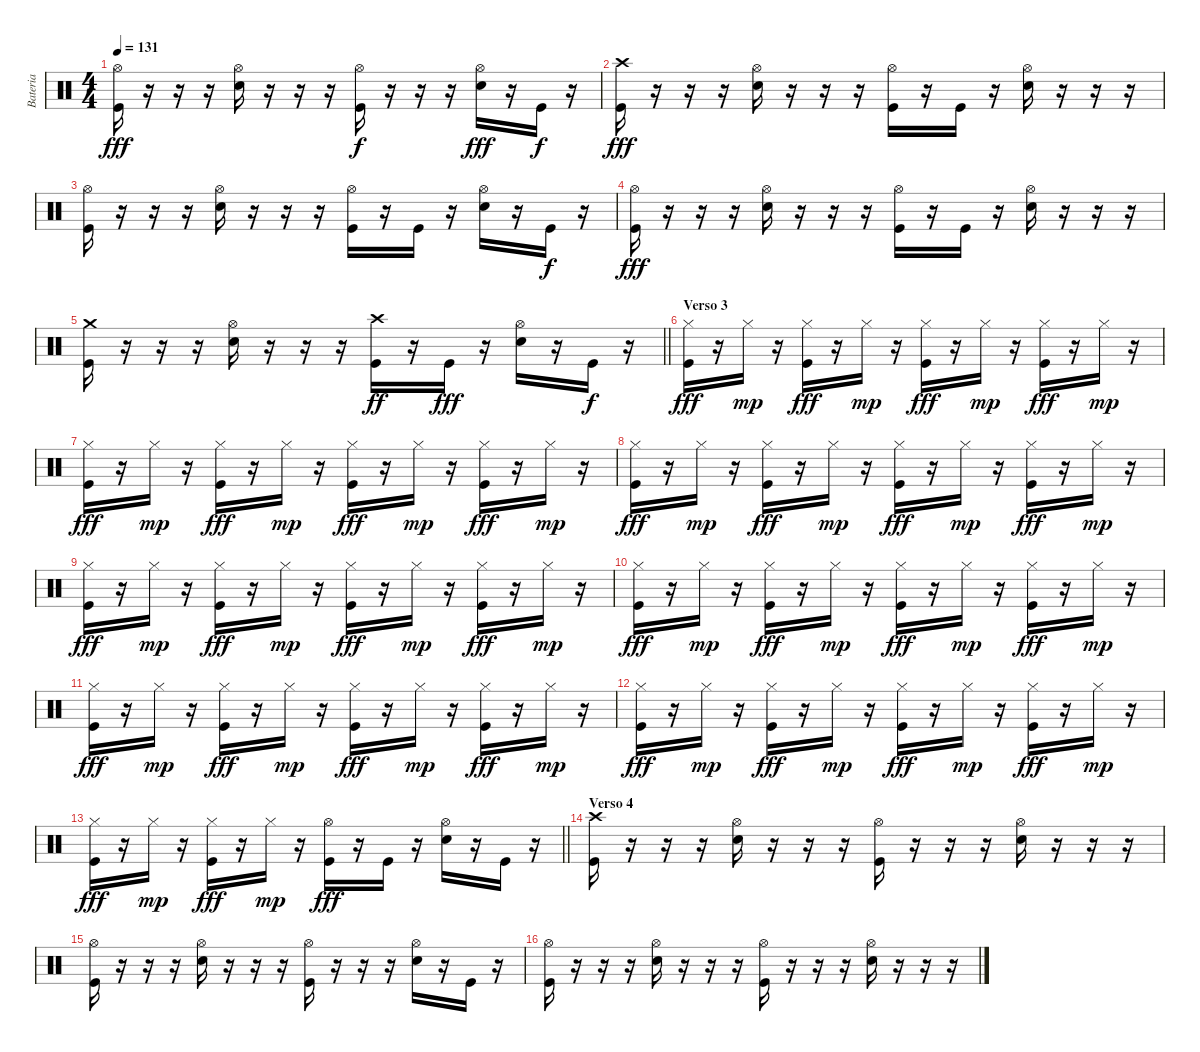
\track ("Bateria" "Bateria") {instrument percussion}
\staff {score}
\articulation defaults
\ts (4 4)
\tempo 131
\clef neutral
\ks c
("Hi-Hat (open)" "Kick (hit)").16{dy fff} r.16 r.16 r.16 ("Hi-Hat (open)" "Electric Snare (hit)").16 r.16 r.16 r.16 ("Hi-Hat (open)" "Kick (hit)").16{dy f} r.16 r.16 r.16 ("Hi-Hat (open)" "Electric Snare (hit)").16{dy fff} r.16 "Kick (hit)".16{dy f} r.16 |
("Crash high (hit)" "Kick (hit)").16{dy fff} r.16 r.16 r.16 ("Hi-Hat (open)" "Electric Snare (hit)").16 r.16 r.16 r.16 ("Hi-Hat (open)" "Kick (hit)").16 r.16 "Kick (hit)".16 r.16 ("Hi-Hat (open)" "Electric Snare (hit)").16 r.16 r.16 r.16 |
("Hi-Hat (open)" "Kick (hit)").16 r.16 r.16 r.16 ("Hi-Hat (open)" "Electric Snare (hit)").16 r.16 r.16 r.16 ("Hi-Hat (open)" "Kick (hit)").16 r.16 "Kick (hit)".16 r.16 ("Hi-Hat (open)" "Electric Snare (hit)").16 r.16 "Kick (hit)".16{dy f} r.16 |
("Hi-Hat (open)" "Kick (hit)").16{dy fff} r.16 r.16 r.16 ("Hi-Hat (open)" "Electric Snare (hit)").16 r.16 r.16 r.16 ("Hi-Hat (open)" "Kick (hit)").16 r.16 "Kick (hit)".16 r.16 ("Hi-Hat (open)" "Electric Snare (hit)").16 r.16 r.16 r.16 |
\barLineRight lightlight
("Crash medium (hit)" "Kick (hit)").16 r.16 r.16 r.16 ("Hi-Hat (open)" "Electric Snare (hit)").16 r.16 r.16 r.16 ("Crash high (hit)" "Kick (hit)").16{dy ff} r.16 "Kick (hit)".16{dy fff} r.16 ("Hi-Hat (open)" "Electric Snare (hit)").16 r.16 "Kick (hit)".16{dy f} r.16 |
\section ("" "Verso 3")
("Hi-Hat (closed)" "Kick (hit)").16{dy fff} r.16 "Hi-Hat (closed)".16{dy mp} r.16 ("Hi-Hat (closed)" "Kick (hit)").16{dy fff} r.16 "Hi-Hat (closed)".16{dy mp} r.16 ("Hi-Hat (closed)" "Kick (hit)").16{dy fff} r.16 "Hi-Hat (closed)".16{dy mp} r.16 ("Hi-Hat (closed)" "Kick (hit)").16{dy fff} r.16 "Hi-Hat (closed)".16{dy mp} r.16 |
("Hi-Hat (closed)" "Kick (hit)").16{dy fff} r.16 "Hi-Hat (closed)".16{dy mp} r.16 ("Hi-Hat (closed)" "Kick (hit)").16{dy fff} r.16 "Hi-Hat (closed)".16{dy mp} r.16 ("Hi-Hat (closed)" "Kick (hit)").16{dy fff} r.16 "Hi-Hat (closed)".16{dy mp} r.16 ("Hi-Hat (closed)" "Kick (hit)").16{dy fff} r.16 "Hi-Hat (closed)".16{dy mp} r.16 |
("Hi-Hat (closed)" "Kick (hit)").16{dy fff} r.16 "Hi-Hat (closed)".16{dy mp} r.16 ("Hi-Hat (closed)" "Kick (hit)").16{dy fff} r.16 "Hi-Hat (closed)".16{dy mp} r.16 ("Hi-Hat (closed)" "Kick (hit)").16{dy fff} r.16 "Hi-Hat (closed)".16{dy mp} r.16 ("Hi-Hat (closed)" "Kick (hit)").16{dy fff} r.16 "Hi-Hat (closed)".16{dy mp} r.16 |
("Hi-Hat (closed)" "Kick (hit)").16{dy fff} r.16 "Hi-Hat (closed)".16{dy mp} r.16 ("Hi-Hat (closed)" "Kick (hit)").16{dy fff} r.16 "Hi-Hat (closed)".16{dy mp} r.16 ("Hi-Hat (closed)" "Kick (hit)").16{dy fff} r.16 "Hi-Hat (closed)".16{dy mp} r.16 ("Hi-Hat (closed)" "Kick (hit)").16{dy fff} r.16 "Hi-Hat (closed)".16{dy mp} r.16 |
("Hi-Hat (closed)" "Kick (hit)").16{dy fff} r.16 "Hi-Hat (closed)".16{dy mp} r.16 ("Hi-Hat (closed)" "Kick (hit)").16{dy fff} r.16 "Hi-Hat (closed)".16{dy mp} r.16 ("Hi-Hat (closed)" "Kick (hit)").16{dy fff} r.16 "Hi-Hat (closed)".16{dy mp} r.16 ("Hi-Hat (closed)" "Kick (hit)").16{dy fff} r.16 "Hi-Hat (closed)".16{dy mp} r.16 |
("Hi-Hat (closed)" "Kick (hit)").16{dy fff} r.16 "Hi-Hat (closed)".16{dy mp} r.16 ("Hi-Hat (closed)" "Kick (hit)").16{dy fff} r.16 "Hi-Hat (closed)".16{dy mp} r.16 ("Hi-Hat (closed)" "Kick (hit)").16{dy fff} r.16 "Hi-Hat (closed)".16{dy mp} r.16 ("Hi-Hat (closed)" "Kick (hit)").16{dy fff} r.16 "Hi-Hat (closed)".16{dy mp} r.16 |
("Hi-Hat (closed)" "Kick (hit)").16{dy fff} r.16 "Hi-Hat (closed)".16{dy mp} r.16 ("Hi-Hat (closed)" "Kick (hit)").16{dy fff} r.16 "Hi-Hat (closed)".16{dy mp} r.16 ("Hi-Hat (closed)" "Kick (hit)").16{dy fff} r.16 "Hi-Hat (closed)".16{dy mp} r.16 ("Hi-Hat (closed)" "Kick (hit)").16{dy fff} r.16 "Hi-Hat (closed)".16{dy mp} r.16 |
\barLineRight lightlight
("Hi-Hat (closed)" "Kick (hit)").16{dy fff} r.16 "Hi-Hat (closed)".16{dy mp} r.16 ("Hi-Hat (closed)" "Kick (hit)").16{dy fff} r.16 "Hi-Hat (closed)".16{dy mp} r.16 ("Hi-Hat (open)" "Kick (hit)").16{dy fff} r.16 "Kick (hit)".16 r.16 ("Hi-Hat (open)" "Electric Snare (hit)").16 r.16 "Kick (hit)".16 r.16 |
\section ("" "Verso 4")
("Crash high (hit)" "Kick (hit)").16 r.16 r.16 r.16 ("Hi-Hat (open)" "Electric Snare (hit)").16 r.16 r.16 r.16 ("Hi-Hat (open)" "Kick (hit)").16 r.16 r.16 r.16 ("Hi-Hat (open)" "Electric Snare (hit)").16 r.16 r.16 r.16 |
("Hi-Hat (open)" "Kick (hit)").16 r.16 r.16 r.16 ("Hi-Hat (open)" "Electric Snare (hit)").16 r.16 r.16 r.16 ("Hi-Hat (open)" "Kick (hit)").16 r.16 r.16 r.16 ("Hi-Hat (open)" "Electric Snare (hit)").16 r.16 "Kick (hit)".16 r.16 |
("Hi-Hat (open)" "Kick (hit)").16 r.16 r.16 r.16 ("Hi-Hat (open)" "Electric Snare (hit)").16 r.16 r.16 r.16 ("Hi-Hat (open)" "Kick (hit)").16 r.16 r.16 r.16 ("Hi-Hat (open)" "Electric Snare (hit)").16 r.16 r.16 r.16
